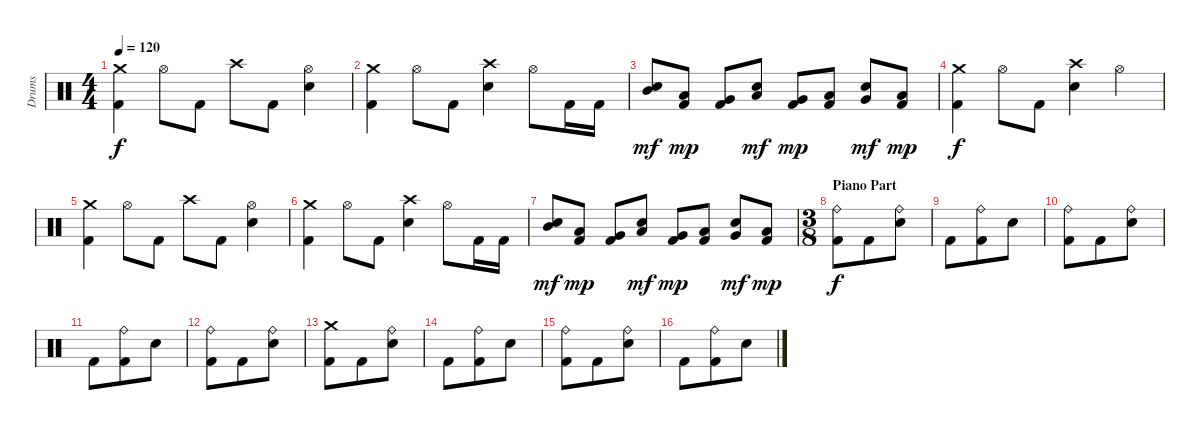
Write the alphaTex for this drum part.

\track ("Drums" "Drums") {instrument percussion}
\staff {score}
\articulation defaults
\ts (4 4)
\tempo 120
\clef neutral
\ks c
("Crash medium (hit)" "Kick (hit) 2").4{dy f} "Hi-Hat (open)".8 "Kick (hit) 2".8 "Crash high (hit)".8 "Kick (hit) 2".8 ("Hi-Hat (open)" "Snare (hit) 2").4 |
("Crash medium (hit)" "Kick (hit) 2").4 "Hi-Hat (open)".8 "Kick (hit) 2".8 ("Crash high (hit)" "Snare (hit) 2").4 "Hi-Hat (open)".8 "Kick (hit) 2".16 "Kick (hit) 2".16 |
("Mid Tom (hit)" "Snare (hit) 2").8{dy mf} ("Low Tom (hit)" "Kick (hit) 2").8{dy mp} ("Very Low Tom (hit)" "Kick (hit) 2").8 ("Low Tom (hit)" "Snare (hit) 2").8{dy mf} ("Very Low Tom (hit)" "Kick (hit) 2").8{dy mp} ("Low Floor Tom (hit)" "Kick (hit) 2").8 ("Very Low Tom (hit)" "Snare (hit) 2").8{dy mf} ("Low Floor Tom (hit)" "Kick (hit) 2").8{dy mp} |
("Crash medium (hit)" "Kick (hit) 2").4{dy f} "Hi-Hat (open)".8 "Kick (hit) 2".8 ("Crash high (hit)" "Snare (hit) 2").4 "Hi-Hat (open)".4 |
("Crash medium (hit)" "Kick (hit) 2").4 "Hi-Hat (open)".8 "Kick (hit) 2".8 "Crash high (hit)".8 "Kick (hit) 2".8 ("Hi-Hat (open)" "Snare (hit) 2").4 |
("Crash medium (hit)" "Kick (hit) 2").4 "Hi-Hat (open)".8 "Kick (hit) 2".8 ("Crash high (hit)" "Snare (hit) 2").4 "Hi-Hat (open)".8 "Kick (hit) 2".16 "Kick (hit) 2".16 |
("Mid Tom (hit)" "Snare (hit) 2").8{dy mf} ("Low Tom (hit)" "Kick (hit) 2").8{dy mp} ("Very Low Tom (hit)" "Kick (hit) 2").8 ("Low Tom (hit)" "Snare (hit) 2").8{dy mf} ("Very Low Tom (hit)" "Kick (hit) 2").8{dy mp} ("Low Floor Tom (hit)" "Kick (hit) 2").8 ("Very Low Tom (hit)" "Snare (hit) 2").8{dy mf} ("Low Floor Tom (hit)" "Kick (hit) 2").8{dy mp} |
\ts (3 8)
\section ("" "Piano Part")
("Ride (bell)" "Kick (hit) 2").8{dy f} "Kick (hit) 2".8 ("Ride (bell)" "Snare (hit) 2").8 |
"Kick (hit) 2".8 ("Ride (bell)" "Kick (hit) 2").8 "Snare (hit) 2".8 |
("Ride (bell)" "Kick (hit) 2").8 "Kick (hit) 2".8 ("Ride (bell)" "Snare (hit) 2").8 |
"Kick (hit) 2".8 ("Ride (bell)" "Kick (hit) 2").8 "Snare (hit) 2".8 |
("Ride (bell)" "Kick (hit) 2").8 "Kick (hit) 2".8 ("Ride (bell)" "Snare (hit) 2").8 |
("Crash medium (hit)" "Kick (hit) 2").8 "Kick (hit) 2".8 ("Ride (bell)" "Snare (hit) 2").8 |
"Kick (hit) 2".8 ("Ride (bell)" "Kick (hit) 2").8 "Snare (hit) 2".8 |
("Ride (bell)" "Kick (hit) 2").8 "Kick (hit) 2".8 ("Ride (bell)" "Snare (hit) 2").8 |
"Kick (hit) 2".8 ("Ride (bell)" "Kick (hit) 2").8 "Snare (hit) 2".8
